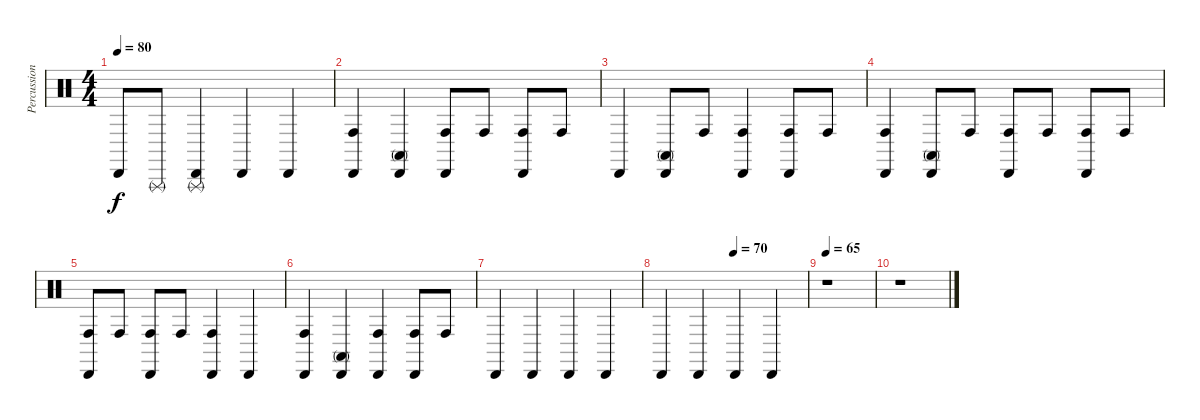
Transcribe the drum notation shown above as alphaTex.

\track ("Percussions" "Percussion") {instrument percussion}
\staff {score}
\articulation defaults
\ts (4 4)
\tempo 80
\clef neutral
\ks c "Cabasa (hit)".8{dy f} "Triangle (rnute)".8
("Cabasa (hit)" "Triangle (rnute)").4 "Cabasa (hit)".4 "Cabasa (hit)".4 |
("Cabasa (hit)" "Conga high (hit)").4 ("Cabasa (hit)" "Conga high (mute)").4 ("Cabasa (hit)" "Conga high (hit)").8 "Conga high (hit)".8 ("Cabasa (hit)" "Conga high (hit)").8 "Conga high (hit)".8 |
"Cabasa (hit)".4 ("Cabasa (hit)" "Conga high (mute)").8 "Conga high (hit)".8 ("Cabasa (hit)" "Conga high (hit)").4 ("Cabasa (hit)" "Conga high (hit)").8 "Conga high (hit)".8 |
("Cabasa (hit)" "Conga high (hit)").4 ("Cabasa (hit)" "Conga high (mute)").8 "Conga high (hit)".8 ("Cabasa (hit)" "Conga high (hit)").8 "Conga high (hit)".8 ("Cabasa (hit)" "Conga high (hit)").8 "Conga high (hit)".8 |
("Cabasa (hit)" "Conga high (hit)").8 "Conga high (hit)".8 ("Cabasa (hit)" "Conga high (hit)").8 "Conga high (hit)".8 ("Cabasa (hit)" "Conga high (hit)").4 "Cabasa (hit)".4 |
("Cabasa (hit)" "Conga high (hit)").4 ("Cabasa (hit)" "Conga high (mute)").4 ("Cabasa (hit)" "Conga high (hit)").4 ("Cabasa (hit)" "Conga high (hit)").8 "Conga high (hit)".8 |
"Cabasa (hit)".4 "Cabasa (hit)".4 "Cabasa (hit)".4 "Cabasa (hit)".4 |
\tempo (70 0.5)
"Cabasa (hit)".4 "Cabasa (hit)".4 "Cabasa (hit)".4 "Cabasa (hit)".4 |
\tempo 65
r.1 |
r.1
